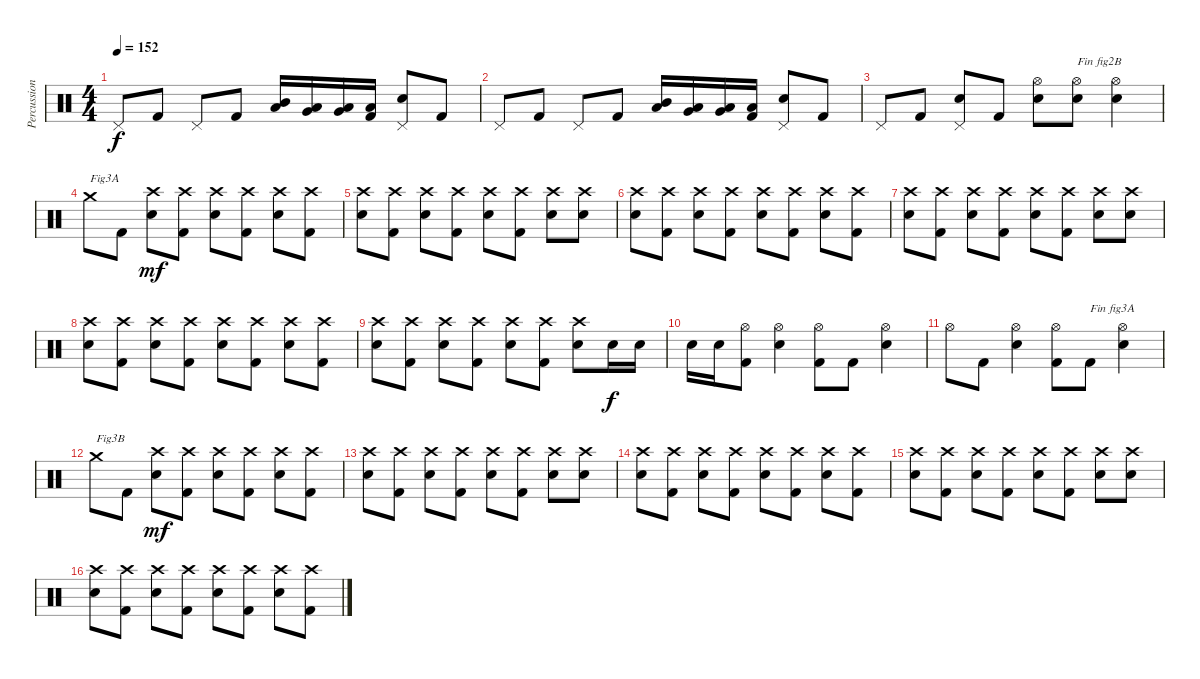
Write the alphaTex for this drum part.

\track ("Percussions" "Percussion") {instrument percussion}
\staff {score}
\articulation defaults
\ts (4 4)
\tempo 152
\clef neutral
\ks c "Pedal Hi-Hat (hit)".8{dy f} "Kick (hit) 2".8 "Pedal Hi-Hat (hit)".8 "Kick (hit) 2".8
("Low Tom (hit)" "Mid Tom (hit)").16 ("Low Tom (hit)" "Very Low Tom (hit)").16 ("Low Floor Tom (hit)" "Very Low Tom (hit)").16 ("Kick (hit) 2" "Low Floor Tom (hit)").16 ("Electric Snare (hit)" "Pedal Hi-Hat (hit)").8 "Kick (hit) 2".8 |
"Pedal Hi-Hat (hit)".8 "Kick (hit) 2".8 "Pedal Hi-Hat (hit)".8 "Kick (hit) 2".8 ("Low Tom (hit)" "Mid Tom (hit)").16 ("Low Tom (hit)" "Very Low Tom (hit)").16 ("Low Floor Tom (hit)" "Very Low Tom (hit)").16 ("Kick (hit) 2" "Low Floor Tom (hit)").16 ("Electric Snare (hit)" "Pedal Hi-Hat (hit)").8 "Kick (hit) 2".8 |
"Pedal Hi-Hat (hit)".8 "Kick (hit) 2".8 ("Electric Snare (hit)" "Pedal Hi-Hat (hit)").8 "Kick (hit) 2".8 ("Electric Snare (hit)" "Hi-Hat (open)").8 ("Electric Snare (hit)" "Hi-Hat (open)").8{txt "Fin fig2B"} ("Electric Snare (hit)" "Hi-Hat (open)").4 |
"Crash medium (hit)".8{txt "Fig3A"} "Kick (hit) 2".8 ("Electric Snare (hit)" "Crash high (hit)").8{dy mf} ("Kick (hit) 2" "Crash high (hit)").8 ("Electric Snare (hit)" "Crash high (hit)").8 ("Kick (hit) 2" "Crash high (hit)").8 ("Electric Snare (hit)" "Crash high (hit)").8 ("Kick (hit) 2" "Crash high (hit)").8 |
("Electric Snare (hit)" "Crash high (hit)").8 ("Kick (hit) 2" "Crash high (hit)").8 ("Electric Snare (hit)" "Crash high (hit)").8 ("Kick (hit) 2" "Crash high (hit)").8 ("Electric Snare (hit)" "Crash high (hit)").8 ("Kick (hit) 2" "Crash high (hit)").8 ("Electric Snare (hit)" "Crash high (hit)").8 ("Electric Snare (hit)" "Crash high (hit)").8 |
("Electric Snare (hit)" "Crash high (hit)").8 ("Kick (hit) 2" "Crash high (hit)").8 ("Electric Snare (hit)" "Crash high (hit)").8 ("Kick (hit) 2" "Crash high (hit)").8 ("Electric Snare (hit)" "Crash high (hit)").8 ("Kick (hit) 2" "Crash high (hit)").8 ("Electric Snare (hit)" "Crash high (hit)").8 ("Kick (hit) 2" "Crash high (hit)").8 |
("Electric Snare (hit)" "Crash high (hit)").8 ("Kick (hit) 2" "Crash high (hit)").8 ("Electric Snare (hit)" "Crash high (hit)").8 ("Kick (hit) 2" "Crash high (hit)").8 ("Electric Snare (hit)" "Crash high (hit)").8 ("Kick (hit) 2" "Crash high (hit)").8 ("Electric Snare (hit)" "Crash high (hit)").8 ("Electric Snare (hit)" "Crash high (hit)").8 |
("Electric Snare (hit)" "Crash high (hit)").8 ("Kick (hit) 2" "Crash high (hit)").8 ("Electric Snare (hit)" "Crash high (hit)").8 ("Kick (hit) 2" "Crash high (hit)").8 ("Electric Snare (hit)" "Crash high (hit)").8 ("Kick (hit) 2" "Crash high (hit)").8 ("Electric Snare (hit)" "Crash high (hit)").8 ("Kick (hit) 2" "Crash high (hit)").8 |
("Electric Snare (hit)" "Crash high (hit)").8 ("Kick (hit) 2" "Crash high (hit)").8 ("Electric Snare (hit)" "Crash high (hit)").8 ("Kick (hit) 2" "Crash high (hit)").8 ("Electric Snare (hit)" "Crash high (hit)").8 ("Kick (hit) 2" "Crash high (hit)").8 ("Electric Snare (hit)" "Crash high (hit)").8 "Electric Snare (hit)".16{dy f} "Electric Snare (hit)".16 |
"Electric Snare (hit)".16 "Electric Snare (hit)".16 ("Kick (hit) 2" "Hi-Hat (open)").8 ("Electric Snare (hit)" "Hi-Hat (open)").4 ("Kick (hit) 2" "Hi-Hat (open)").8 "Kick (hit) 2".8 ("Electric Snare (hit)" "Hi-Hat (open)").4 |
"Hi-Hat (open)".8 "Kick (hit) 2".8 ("Electric Snare (hit)" "Hi-Hat (open)").4 ("Kick (hit) 2" "Hi-Hat (open)").8 "Kick (hit) 2".8{txt "Fin fig3A"} ("Electric Snare (hit)" "Hi-Hat (open)").4 |
"Crash medium (hit)".8{txt "Fig3B"} "Kick (hit) 2".8 ("Electric Snare (hit)" "Crash high (hit)").8{dy mf} ("Kick (hit) 2" "Crash high (hit)").8 ("Electric Snare (hit)" "Crash high (hit)").8 ("Kick (hit) 2" "Crash high (hit)").8 ("Electric Snare (hit)" "Crash high (hit)").8 ("Kick (hit) 2" "Crash high (hit)").8 |
("Electric Snare (hit)" "Crash high (hit)").8 ("Kick (hit) 2" "Crash high (hit)").8 ("Electric Snare (hit)" "Crash high (hit)").8 ("Kick (hit) 2" "Crash high (hit)").8 ("Electric Snare (hit)" "Crash high (hit)").8 ("Kick (hit) 2" "Crash high (hit)").8 ("Electric Snare (hit)" "Crash high (hit)").8 ("Electric Snare (hit)" "Crash high (hit)").8 |
("Electric Snare (hit)" "Crash high (hit)").8 ("Kick (hit) 2" "Crash high (hit)").8 ("Electric Snare (hit)" "Crash high (hit)").8 ("Kick (hit) 2" "Crash high (hit)").8 ("Electric Snare (hit)" "Crash high (hit)").8 ("Kick (hit) 2" "Crash high (hit)").8 ("Electric Snare (hit)" "Crash high (hit)").8 ("Kick (hit) 2" "Crash high (hit)").8 |
("Electric Snare (hit)" "Crash high (hit)").8 ("Kick (hit) 2" "Crash high (hit)").8 ("Electric Snare (hit)" "Crash high (hit)").8 ("Kick (hit) 2" "Crash high (hit)").8 ("Electric Snare (hit)" "Crash high (hit)").8 ("Kick (hit) 2" "Crash high (hit)").8 ("Electric Snare (hit)" "Crash high (hit)").8 ("Electric Snare (hit)" "Crash high (hit)").8 |
("Electric Snare (hit)" "Crash high (hit)").8 ("Kick (hit) 2" "Crash high (hit)").8 ("Electric Snare (hit)" "Crash high (hit)").8 ("Kick (hit) 2" "Crash high (hit)").8 ("Electric Snare (hit)" "Crash high (hit)").8 ("Kick (hit) 2" "Crash high (hit)").8 ("Electric Snare (hit)" "Crash high (hit)").8 ("Kick (hit) 2" "Crash high (hit)").8
